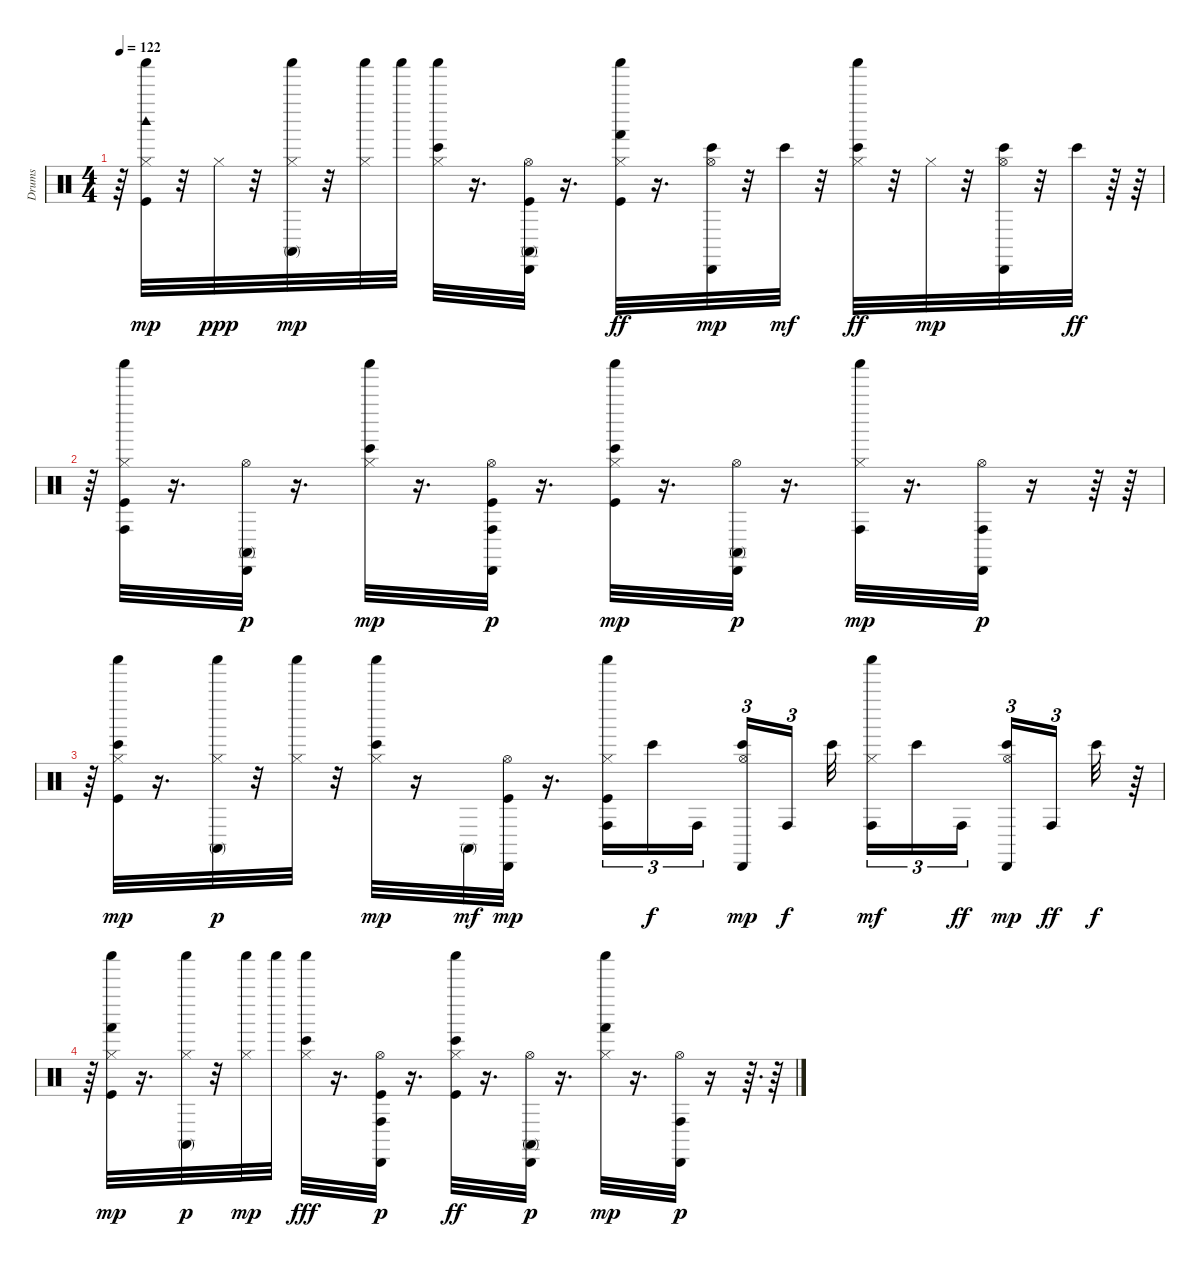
\track ("Drums" "Drums") {instrument percussion}
\staff {score}
\articulation defaults
\ts (4 4)
\tempo 122
\clef neutral
\ks c
r.64{dy p} ("Shaker (hit)" "Kick (hit)" "Hi-Hat (closed)" "Woodblock high (hit)").32{dy mp} r.32 "Hi-Hat (closed)".32{dy ppp} r.32 ("Shaker (hit)" "Hi-Hat (closed)" "Conga high (mute)").32{dy mp} r.32 ("Hi-Hat (closed)" "Shaker (hit)").32 "Shaker (hit)".32 ("Shaker (hit)" "Hi-Hat (closed)" "Bongo High (hit)").32 r.16{d} ("Kick (hit)" "Hi-Hat (open)" "Cabasa (hit)" "Conga high (mute)").32 r.16{d} ("Shaker (hit)" "Kick (hit)" "Hi-Hat (closed)" "Hand (hit)").32{dy ff} r.16{d} ("Hi-Hat (open)" "Cabasa (hit)" "Bongo High (hit)").32{dy mp} r.32 "Bongo High (hit)".32{dy mf} r.32 ("Shaker (hit)" "Hi-Hat (closed)" "Bongo High (hit)").32{dy ff} r.32 "Hi-Hat (closed)".32{dy mp} r.32 ("Bongo High (hit)" "Hi-Hat (open)" "Cabasa (hit)").32 r.32 "Bongo High (hit)".32{dy ff} r.64 r.64 |
r.64 ("Kick (hit)" "Hi-Hat (closed)" "Shaker (hit)" "Conga high (hit)").32 r.16{d} ("Conga high (mute)" "Hi-Hat (open)" "Cabasa (hit)").32{dy p} r.16{d} ("Bongo High (hit)" "Shaker (hit)" "Hi-Hat (closed)").32{dy mp} r.16{d} ("Conga high (hit)" "Kick (hit)" "Hi-Hat (open)" "Cabasa (hit)").32{dy p} r.16{d} ("Bongo High (hit)" "Shaker (hit)" "Kick (hit)" "Hi-Hat (closed)").32{dy mp} r.16{d} ("Conga high (mute)" "Hi-Hat (open)" "Cabasa (hit)").32{dy p} r.16{d} ("Conga high (hit)" "Hi-Hat (closed)" "Shaker (hit)").32{dy mp} r.16{d} ("Conga high (hit)" "Hi-Hat (open)" "Cabasa (hit)").32{dy p} r.16 r.64 r.64 |
r.64 ("Shaker (hit)" "Kick (hit)" "Hi-Hat (closed)" "Bongo High (hit)").32{dy mp} r.16{d} ("Conga high (mute)" "Shaker (hit)" "Hi-Hat (closed)").32{dy p} r.32 ("Hi-Hat (closed)" "Shaker (hit)").32 r.32 ("Hi-Hat (closed)" "Bongo High (hit)" "Shaker (hit)").32{dy mp} r.16 "Conga high (mute)".32{dy mf} ("Kick (hit)" "Hi-Hat (open)" "Cabasa (hit)").32{dy mp} r.16{d} ("Shaker (hit)" "Kick (hit)" "Hi-Hat (closed)" "Conga high (hit)").16{tu (3 2)} "Bongo High (hit)".16{tu (3 2) dy f} "Conga high (hit)".16{tu (3 2) beam splitsecondary} ("Hi-Hat (open)" "Bongo High (hit)" "Cabasa (hit)").16{tu (3 2) dy mp} "Conga high (hit)".16{tu (3 2) dy f beam splitsecondary} "Bongo High (hit)".32 ("Hi-Hat (closed)" "Shaker (hit)" "Conga high (hit)").16{tu (3 2) dy mf} "Bongo High (hit)".16{tu (3 2)} "Conga high (hit)".16{tu (3 2) dy ff beam splitsecondary} ("Hi-Hat (open)" "Bongo High (hit)" "Cabasa (hit)").16{tu (3 2) dy mp} "Conga high (hit)".16{tu (3 2) dy ff beam splitsecondary} "Bongo High (hit)".32{dy f} r.64 |
r.64 ("Kick (hit)" "Hi-Hat (closed)" "Hand (hit)" "Shaker (hit)").32{dy mp} r.16{d} ("Hi-Hat (closed)" "Shaker (hit)" "Conga high (mute)").32{dy p} r.32 ("Hi-Hat (closed)" "Shaker (hit)").32{dy mp} "Shaker (hit)".32 ("Shaker (hit)" "Hi-Hat (closed)" "Bongo High (hit)").32{dy fff} r.16{d} ("Kick (hit)" "Hi-Hat (open)" "Conga high (hit)" "Cabasa (hit)").32{dy p} r.16{d} ("Shaker (hit)" "Kick (hit)" "Hi-Hat (closed)" "Bongo High (hit)").32{dy ff} r.16{d} ("Hi-Hat (open)" "Conga high (mute)" "Cabasa (hit)").32{dy p} r.16{d} ("Shaker (hit)" "Hi-Hat (closed)" "Hand (hit)").32{dy mp} r.16{d} ("Conga high (hit)" "Hi-Hat (open)" "Cabasa (hit)").32{dy p} r.16 r.64{d} r.64
